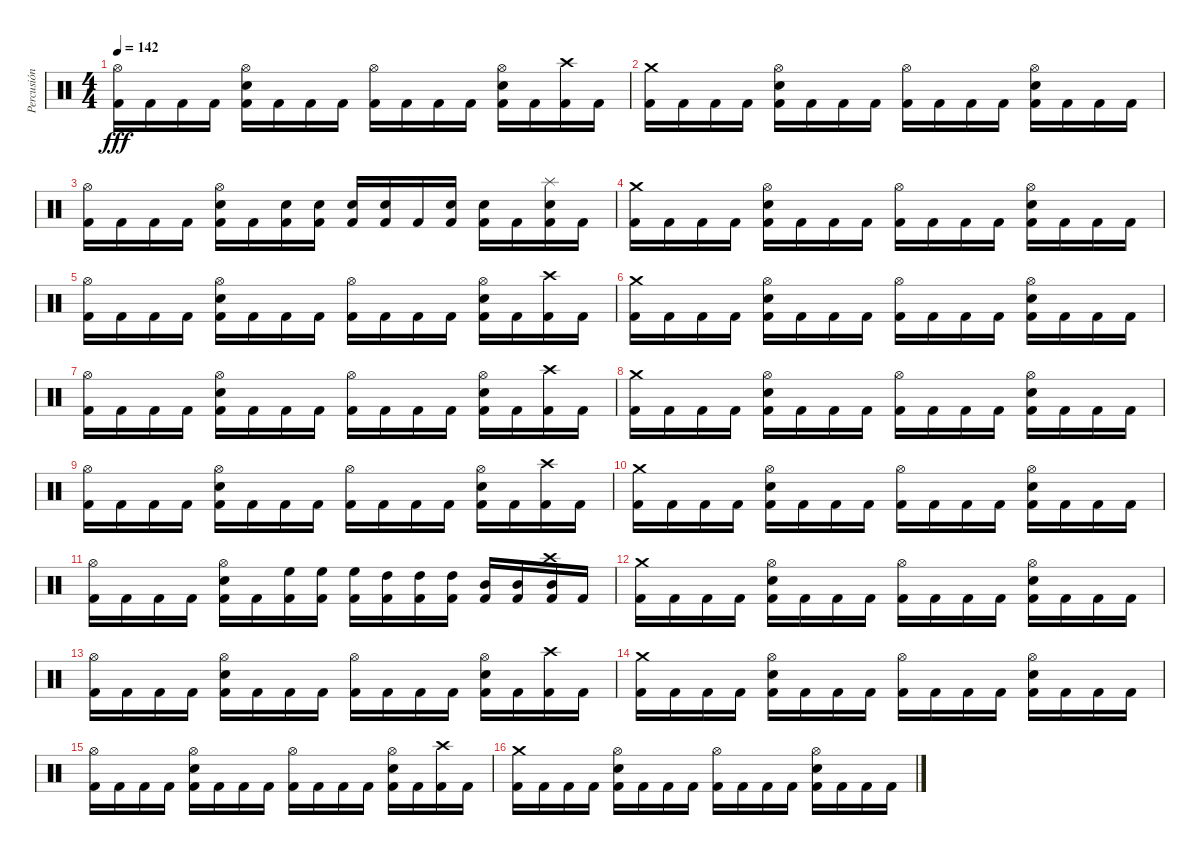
\track ("Percusión" "Percusión") {instrument percussion}
\staff {score}
\articulation defaults
\ts (4 4)
\tempo 142
\clef neutral
\ks c
("Hi-Hat (open)" "Kick (hit) 2").16{dy fff} "Kick (hit) 2".16 "Kick (hit) 2".16 "Kick (hit) 2".16 ("Hi-Hat (open)" "Electric Snare (hit)" "Kick (hit) 2").16 "Kick (hit) 2".16 "Kick (hit) 2".16 "Kick (hit) 2".16 ("Hi-Hat (open)" "Kick (hit) 2").16 "Kick (hit) 2".16 "Kick (hit) 2".16 "Kick (hit) 2".16 ("Hi-Hat (open)" "Electric Snare (hit)" "Kick (hit) 2").16 "Kick (hit) 2".16 ("Crash high (hit)" "Kick (hit) 2").16 "Kick (hit) 2".16 |
("Crash medium (hit)" "Kick (hit) 2").16 "Kick (hit) 2".16 "Kick (hit) 2".16 "Kick (hit) 2".16 ("Hi-Hat (open)" "Electric Snare (hit)" "Kick (hit) 2").16 "Kick (hit) 2".16 "Kick (hit) 2".16 "Kick (hit) 2".16 ("Hi-Hat (open)" "Kick (hit) 2").16 "Kick (hit) 2".16 "Kick (hit) 2".16 "Kick (hit) 2".16 ("Hi-Hat (open)" "Electric Snare (hit)" "Kick (hit) 2").16 "Kick (hit) 2".16 "Kick (hit) 2".16 "Kick (hit) 2".16 |
("Hi-Hat (open)" "Kick (hit) 2").16 "Kick (hit) 2".16 "Kick (hit) 2".16 "Kick (hit) 2".16 ("Hi-Hat (open)" "Electric Snare (hit)" "Kick (hit) 2").16 "Kick (hit) 2".16 ("Electric Snare (hit)" "Kick (hit) 2").16 ("Electric Snare (hit)" "Kick (hit) 2").16 ("Electric Snare (hit)" "Kick (hit) 2").16 ("Electric Snare (hit)" "Kick (hit) 2").16 "Kick (hit) 2".16 ("Electric Snare (hit)" "Kick (hit) 2").16 ("Electric Snare (hit)" "Kick (hit) 2").16 "Kick (hit) 2".16 ("Splash (hit)" "Electric Snare (hit)" "Kick (hit) 2").16 "Kick (hit) 2".16 |
("Crash medium (hit)" "Kick (hit) 2").16 "Kick (hit) 2".16 "Kick (hit) 2".16 "Kick (hit) 2".16 ("Hi-Hat (open)" "Electric Snare (hit)" "Kick (hit) 2").16 "Kick (hit) 2".16 "Kick (hit) 2".16 "Kick (hit) 2".16 ("Hi-Hat (open)" "Kick (hit) 2").16 "Kick (hit) 2".16 "Kick (hit) 2".16 "Kick (hit) 2".16 ("Hi-Hat (open)" "Electric Snare (hit)" "Kick (hit) 2").16 "Kick (hit) 2".16 "Kick (hit) 2".16 "Kick (hit) 2".16 |
("Hi-Hat (open)" "Kick (hit) 2").16 "Kick (hit) 2".16 "Kick (hit) 2".16 "Kick (hit) 2".16 ("Hi-Hat (open)" "Electric Snare (hit)" "Kick (hit) 2").16 "Kick (hit) 2".16 "Kick (hit) 2".16 "Kick (hit) 2".16 ("Hi-Hat (open)" "Kick (hit) 2").16 "Kick (hit) 2".16 "Kick (hit) 2".16 "Kick (hit) 2".16 ("Hi-Hat (open)" "Electric Snare (hit)" "Kick (hit) 2").16 "Kick (hit) 2".16 ("Crash high (hit)" "Kick (hit) 2").16 "Kick (hit) 2".16 |
("Crash medium (hit)" "Kick (hit) 2").16 "Kick (hit) 2".16 "Kick (hit) 2".16 "Kick (hit) 2".16 ("Hi-Hat (open)" "Electric Snare (hit)" "Kick (hit) 2").16 "Kick (hit) 2".16 "Kick (hit) 2".16 "Kick (hit) 2".16 ("Hi-Hat (open)" "Kick (hit) 2").16 "Kick (hit) 2".16 "Kick (hit) 2".16 "Kick (hit) 2".16 ("Hi-Hat (open)" "Electric Snare (hit)" "Kick (hit) 2").16 "Kick (hit) 2".16 "Kick (hit) 2".16 "Kick (hit) 2".16 |
("Hi-Hat (open)" "Kick (hit) 2").16 "Kick (hit) 2".16 "Kick (hit) 2".16 "Kick (hit) 2".16 ("Hi-Hat (open)" "Electric Snare (hit)" "Kick (hit) 2").16 "Kick (hit) 2".16 "Kick (hit) 2".16 "Kick (hit) 2".16 ("Hi-Hat (open)" "Kick (hit) 2").16 "Kick (hit) 2".16 "Kick (hit) 2".16 "Kick (hit) 2".16 ("Hi-Hat (open)" "Electric Snare (hit)" "Kick (hit) 2").16 "Kick (hit) 2".16 ("Crash high (hit)" "Kick (hit) 2").16 "Kick (hit) 2".16 |
("Crash medium (hit)" "Kick (hit) 2").16 "Kick (hit) 2".16 "Kick (hit) 2".16 "Kick (hit) 2".16 ("Hi-Hat (open)" "Electric Snare (hit)" "Kick (hit) 2").16 "Kick (hit) 2".16 "Kick (hit) 2".16 "Kick (hit) 2".16 ("Hi-Hat (open)" "Kick (hit) 2").16 "Kick (hit) 2".16 "Kick (hit) 2".16 "Kick (hit) 2".16 ("Hi-Hat (open)" "Electric Snare (hit)" "Kick (hit) 2").16 "Kick (hit) 2".16 "Kick (hit) 2".16 "Kick (hit) 2".16 |
("Hi-Hat (open)" "Kick (hit) 2").16 "Kick (hit) 2".16 "Kick (hit) 2".16 "Kick (hit) 2".16 ("Hi-Hat (open)" "Electric Snare (hit)" "Kick (hit) 2").16 "Kick (hit) 2".16 "Kick (hit) 2".16 "Kick (hit) 2".16 ("Hi-Hat (open)" "Kick (hit) 2").16 "Kick (hit) 2".16 "Kick (hit) 2".16 "Kick (hit) 2".16 ("Hi-Hat (open)" "Electric Snare (hit)" "Kick (hit) 2").16 "Kick (hit) 2".16 ("Crash high (hit)" "Kick (hit) 2").16 "Kick (hit) 2".16 |
("Crash medium (hit)" "Kick (hit) 2").16 "Kick (hit) 2".16 "Kick (hit) 2".16 "Kick (hit) 2".16 ("Hi-Hat (open)" "Electric Snare (hit)" "Kick (hit) 2").16 "Kick (hit) 2".16 "Kick (hit) 2".16 "Kick (hit) 2".16 ("Hi-Hat (open)" "Kick (hit) 2").16 "Kick (hit) 2".16 "Kick (hit) 2".16 "Kick (hit) 2".16 ("Hi-Hat (open)" "Electric Snare (hit)" "Kick (hit) 2").16 "Kick (hit) 2".16 "Kick (hit) 2".16 "Kick (hit) 2".16 |
("Hi-Hat (open)" "Kick (hit) 2").16 "Kick (hit) 2".16 "Kick (hit) 2".16 "Kick (hit) 2".16 ("Hi-Hat (open)" "Electric Snare (hit)" "Kick (hit) 2").16 "Kick (hit) 2".16 ("High Floor Tom (hit)" "Kick (hit) 2").16 ("High Floor Tom (hit)" "Kick (hit) 2").16 ("High Floor Tom (hit)" "Kick (hit) 2").16 ("High Tom (hit)" "Kick (hit) 2").16 ("High Tom (hit)" "Kick (hit) 2").16 ("High Tom (hit)" "Kick (hit) 2").16 ("Mid Tom (hit)" "Kick (hit) 2").16 ("Mid Tom (hit)" "Kick (hit) 2").16 ("Mid Tom (hit)" "Crash high (hit)" "Kick (hit) 2").16 "Kick (hit) 2".16 |
("Crash medium (hit)" "Kick (hit) 2").16 "Kick (hit) 2".16 "Kick (hit) 2".16 "Kick (hit) 2".16 ("Hi-Hat (open)" "Electric Snare (hit)" "Kick (hit) 2").16 "Kick (hit) 2".16 "Kick (hit) 2".16 "Kick (hit) 2".16 ("Hi-Hat (open)" "Kick (hit) 2").16 "Kick (hit) 2".16 "Kick (hit) 2".16 "Kick (hit) 2".16 ("Hi-Hat (open)" "Electric Snare (hit)" "Kick (hit) 2").16 "Kick (hit) 2".16 "Kick (hit) 2".16 "Kick (hit) 2".16 |
("Hi-Hat (open)" "Kick (hit) 2").16 "Kick (hit) 2".16 "Kick (hit) 2".16 "Kick (hit) 2".16 ("Hi-Hat (open)" "Electric Snare (hit)" "Kick (hit) 2").16 "Kick (hit) 2".16 "Kick (hit) 2".16 "Kick (hit) 2".16 ("Hi-Hat (open)" "Kick (hit) 2").16 "Kick (hit) 2".16 "Kick (hit) 2".16 "Kick (hit) 2".16 ("Hi-Hat (open)" "Electric Snare (hit)" "Kick (hit) 2").16 "Kick (hit) 2".16 ("Crash high (hit)" "Kick (hit) 2").16 "Kick (hit) 2".16 |
("Crash medium (hit)" "Kick (hit) 2").16 "Kick (hit) 2".16 "Kick (hit) 2".16 "Kick (hit) 2".16 ("Hi-Hat (open)" "Electric Snare (hit)" "Kick (hit) 2").16 "Kick (hit) 2".16 "Kick (hit) 2".16 "Kick (hit) 2".16 ("Hi-Hat (open)" "Kick (hit) 2").16 "Kick (hit) 2".16 "Kick (hit) 2".16 "Kick (hit) 2".16 ("Hi-Hat (open)" "Electric Snare (hit)" "Kick (hit) 2").16 "Kick (hit) 2".16 "Kick (hit) 2".16 "Kick (hit) 2".16 |
("Hi-Hat (open)" "Kick (hit) 2").16 "Kick (hit) 2".16 "Kick (hit) 2".16 "Kick (hit) 2".16 ("Hi-Hat (open)" "Electric Snare (hit)" "Kick (hit) 2").16 "Kick (hit) 2".16 "Kick (hit) 2".16 "Kick (hit) 2".16 ("Hi-Hat (open)" "Kick (hit) 2").16 "Kick (hit) 2".16 "Kick (hit) 2".16 "Kick (hit) 2".16 ("Hi-Hat (open)" "Electric Snare (hit)" "Kick (hit) 2").16 "Kick (hit) 2".16 ("Crash high (hit)" "Kick (hit) 2").16 "Kick (hit) 2".16 |
("Crash medium (hit)" "Kick (hit) 2").16 "Kick (hit) 2".16 "Kick (hit) 2".16 "Kick (hit) 2".16 ("Hi-Hat (open)" "Electric Snare (hit)" "Kick (hit) 2").16 "Kick (hit) 2".16 "Kick (hit) 2".16 "Kick (hit) 2".16 ("Hi-Hat (open)" "Kick (hit) 2").16 "Kick (hit) 2".16 "Kick (hit) 2".16 "Kick (hit) 2".16 ("Hi-Hat (open)" "Electric Snare (hit)" "Kick (hit) 2").16 "Kick (hit) 2".16 "Kick (hit) 2".16 "Kick (hit) 2".16
